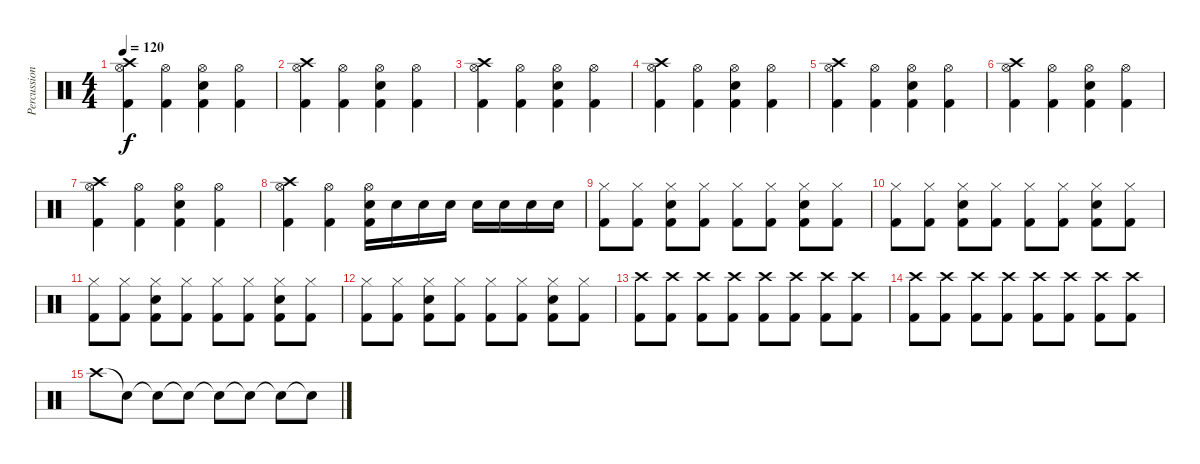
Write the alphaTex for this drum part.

\track ("Percussion" "Percussion") {instrument percussion}
\staff {score}
\articulation defaults
\ts (4 4)
\tempo 120
\clef neutral
\ks c
("Crash high (hit)" "Hi-Hat (open)" "Kick (hit) 2").4{dy f} ("Hi-Hat (open)" "Kick (hit) 2").4 ("Snare (hit) 2" "Hi-Hat (open)" "Kick (hit) 2").4 ("Hi-Hat (open)" "Kick (hit) 2").4 |
("Crash high (hit)" "Hi-Hat (open)" "Kick (hit) 2").4 ("Hi-Hat (open)" "Kick (hit) 2").4 ("Snare (hit) 2" "Hi-Hat (open)" "Kick (hit) 2").4 ("Hi-Hat (open)" "Kick (hit) 2").4 |
("Crash high (hit)" "Hi-Hat (open)" "Kick (hit) 2").4 ("Hi-Hat (open)" "Kick (hit) 2").4 ("Snare (hit) 2" "Hi-Hat (open)" "Kick (hit) 2").4 ("Hi-Hat (open)" "Kick (hit) 2").4 |
("Crash high (hit)" "Hi-Hat (open)" "Kick (hit) 2").4 ("Hi-Hat (open)" "Kick (hit) 2").4 ("Snare (hit) 2" "Hi-Hat (open)" "Kick (hit) 2").4 ("Hi-Hat (open)" "Kick (hit) 2").4 |
("Crash high (hit)" "Hi-Hat (open)" "Kick (hit) 2").4 ("Hi-Hat (open)" "Kick (hit) 2").4 ("Snare (hit) 2" "Hi-Hat (open)" "Kick (hit) 2").4 ("Hi-Hat (open)" "Kick (hit) 2").4 |
("Crash high (hit)" "Hi-Hat (open)" "Kick (hit) 2").4 ("Hi-Hat (open)" "Kick (hit) 2").4 ("Snare (hit) 2" "Hi-Hat (open)" "Kick (hit) 2").4 ("Hi-Hat (open)" "Kick (hit) 2").4 |
("Crash high (hit)" "Hi-Hat (open)" "Kick (hit) 2").4 ("Hi-Hat (open)" "Kick (hit) 2").4 ("Snare (hit) 2" "Hi-Hat (open)" "Kick (hit) 2").4 ("Hi-Hat (open)" "Kick (hit) 2").4 |
("Crash high (hit)" "Hi-Hat (open)" "Kick (hit) 2").4 ("Hi-Hat (open)" "Kick (hit) 2").4 ("Snare (hit) 2" "Hi-Hat (open)" "Kick (hit) 2").16 "Snare (hit) 2".16 "Snare (hit) 2".16 "Snare (hit) 2".16 "Snare (hit) 2".16 "Snare (hit) 2".16 "Snare (hit) 2".16 "Snare (hit) 2".16 |
("Hi-Hat (closed)" "Kick (hit) 2").8 ("Hi-Hat (closed)" "Kick (hit) 2").8 ("Snare (hit) 2" "Hi-Hat (closed)" "Kick (hit) 2").8 ("Hi-Hat (closed)" "Kick (hit) 2").8 ("Hi-Hat (closed)" "Kick (hit) 2").8 ("Hi-Hat (closed)" "Kick (hit) 2").8 ("Snare (hit) 2" "Hi-Hat (closed)" "Kick (hit) 2").8 ("Hi-Hat (closed)" "Kick (hit) 2").8 |
("Hi-Hat (closed)" "Kick (hit) 2").8 ("Hi-Hat (closed)" "Kick (hit) 2").8 ("Snare (hit) 2" "Hi-Hat (closed)" "Kick (hit) 2").8 ("Hi-Hat (closed)" "Kick (hit) 2").8 ("Hi-Hat (closed)" "Kick (hit) 2").8 ("Hi-Hat (closed)" "Kick (hit) 2").8 ("Snare (hit) 2" "Hi-Hat (closed)" "Kick (hit) 2").8 ("Hi-Hat (closed)" "Kick (hit) 2").8 |
("Hi-Hat (closed)" "Kick (hit) 2").8 ("Hi-Hat (closed)" "Kick (hit) 2").8 ("Snare (hit) 2" "Hi-Hat (closed)" "Kick (hit) 2").8 ("Hi-Hat (closed)" "Kick (hit) 2").8 ("Hi-Hat (closed)" "Kick (hit) 2").8 ("Hi-Hat (closed)" "Kick (hit) 2").8 ("Snare (hit) 2" "Hi-Hat (closed)" "Kick (hit) 2").8 ("Hi-Hat (closed)" "Kick (hit) 2").8 |
("Hi-Hat (closed)" "Kick (hit) 2").8 ("Hi-Hat (closed)" "Kick (hit) 2").8 ("Snare (hit) 2" "Hi-Hat (closed)" "Kick (hit) 2").8 ("Hi-Hat (closed)" "Kick (hit) 2").8 ("Hi-Hat (closed)" "Kick (hit) 2").8 ("Hi-Hat (closed)" "Kick (hit) 2").8 ("Snare (hit) 2" "Hi-Hat (closed)" "Kick (hit) 2").8 ("Hi-Hat (closed)" "Kick (hit) 2").8 |
("Crash high (hit)" "Kick (hit) 2").8 ("Crash high (hit)" "Kick (hit) 2").8 ("Crash high (hit)" "Kick (hit) 2").8 ("Crash high (hit)" "Kick (hit) 2").8 ("Crash high (hit)" "Kick (hit) 2").8 ("Crash high (hit)" "Kick (hit) 2").8 ("Crash high (hit)" "Kick (hit) 2").8 ("Crash high (hit)" "Kick (hit) 2").8 |
("Crash high (hit)" "Kick (hit) 2").8 ("Crash high (hit)" "Kick (hit) 2").8 ("Crash high (hit)" "Kick (hit) 2").8 ("Crash high (hit)" "Kick (hit) 2").8 ("Crash high (hit)" "Kick (hit) 2").8 ("Crash high (hit)" "Kick (hit) 2").8 ("Crash high (hit)" "Kick (hit) 2").8 ("Crash high (hit)" "Kick (hit) 2").8 |
"Crash high (hit)".8 "Snare (hit)"{t}.8 "Snare (hit)"{t}.8 "Snare (hit)"{t}.8 "Snare (hit)"{t}.8 "Snare (hit)"{t}.8 "Snare (hit)"{t}.8 "Snare (hit)"{t}.8
